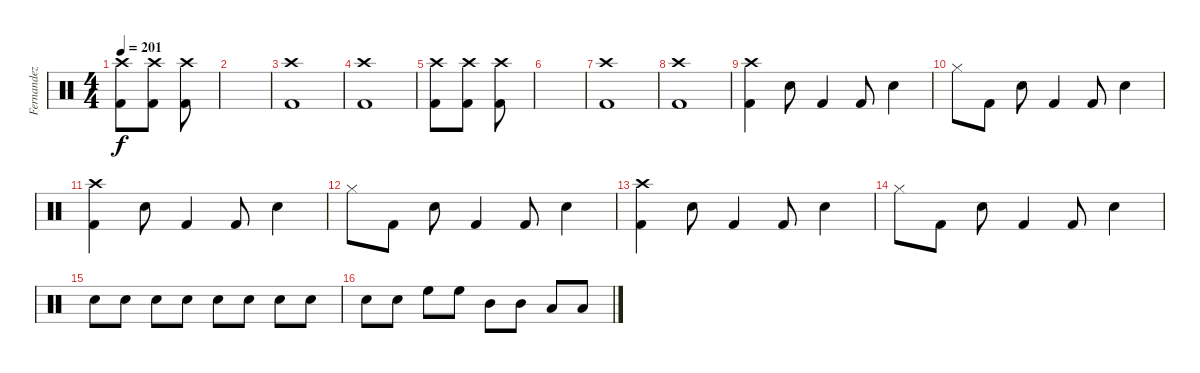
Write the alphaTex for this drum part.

\track ("Fernandez" "Fernandez") {instrument percussion}
\staff {score}
\articulation defaults
\ts (4 4)
\tempo 201
\clef neutral
\ks c
("Crash high (hit)" "Kick (hit) 2").8{dy f} ("Crash high (hit)" "Kick (hit) 2").8 ("Crash high (hit)" "Kick (hit) 2").8 |
|
("Crash high (hit)" "Kick (hit) 2").1 |
("Crash high (hit)" "Kick (hit) 2").1 |
("Crash high (hit)" "Kick (hit) 2").8 ("Crash high (hit)" "Kick (hit) 2").8 ("Crash high (hit)" "Kick (hit) 2").8 |
|
("Crash high (hit)" "Kick (hit) 2").1 |
("Crash high (hit)" "Kick (hit) 2").1 |
("Crash high (hit)" "Kick (hit) 2").4 "Snare (hit) 2".8 "Kick (hit) 2".4 "Kick (hit) 2".8 "Snare (hit) 2".4 |
"Hi-Hat (closed)".8 "Kick (hit) 2".8 "Snare (hit) 2".8 "Kick (hit) 2".4 "Kick (hit) 2".8 "Snare (hit) 2".4 |
("Crash high (hit)" "Kick (hit) 2").4 "Snare (hit) 2".8 "Kick (hit) 2".4 "Kick (hit) 2".8 "Snare (hit) 2".4 |
"Hi-Hat (closed)".8 "Kick (hit) 2".8 "Snare (hit) 2".8 "Kick (hit) 2".4 "Kick (hit) 2".8 "Snare (hit) 2".4 |
("Crash high (hit)" "Kick (hit) 2").4 "Snare (hit) 2".8 "Kick (hit) 2".4 "Kick (hit) 2".8 "Snare (hit) 2".4 |
"Hi-Hat (closed)".8 "Kick (hit) 2".8 "Snare (hit) 2".8 "Kick (hit) 2".4 "Kick (hit) 2".8 "Snare (hit) 2".4 |
"Snare (hit) 2".8 "Snare (hit) 2".8 "Snare (hit) 2".8 "Snare (hit) 2".8 "Snare (hit) 2".8 "Snare (hit) 2".8 "Snare (hit) 2".8 "Snare (hit) 2".8 |
"Snare (hit) 2".8 "Snare (hit) 2".8 "High Floor Tom (hit)".8 "High Floor Tom (hit)".8 "Mid Tom (hit)".8 "Mid Tom (hit)".8 "Low Tom (hit)".8 "Low Tom (hit)".8
